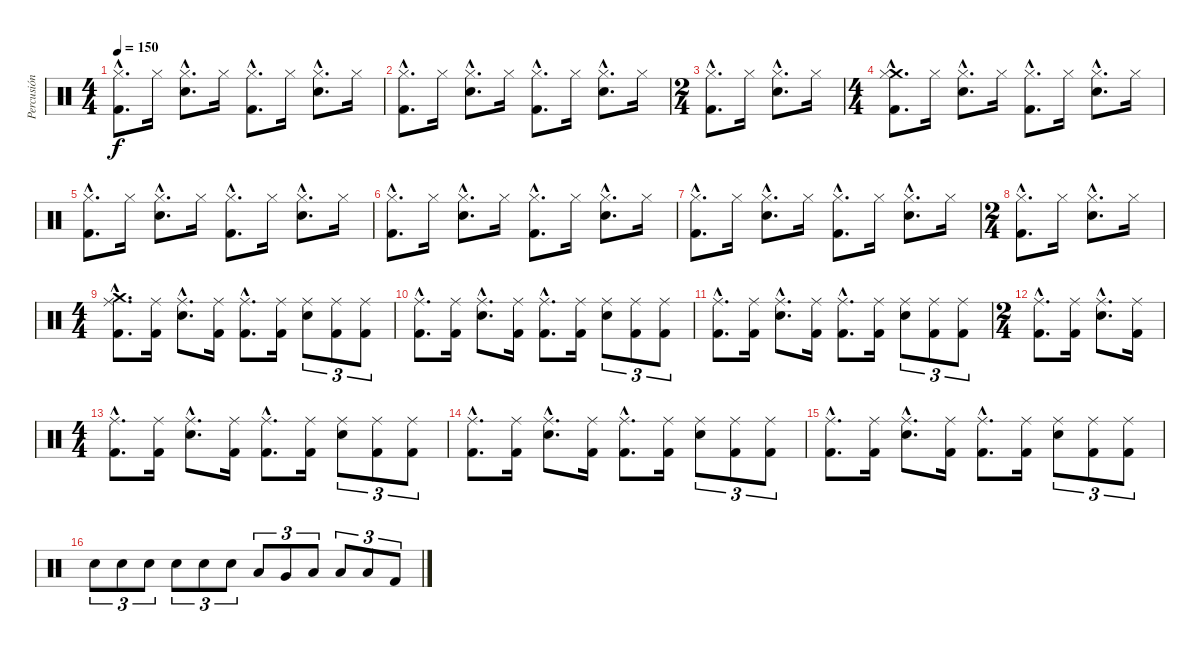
\track ("Percusión" "Percusión") {instrument percussion}
\staff {score}
\articulation defaults
\ts (4 4)
\tempo 150
\clef neutral
\ks c
("Hi-Hat (closed)"{hac} "Kick (hit) 2"{hac}).8{d dy f} "Hi-Hat (closed)".16 ("Hi-Hat (closed)"{hac} "Snare (hit) 2"{hac}).8{d} "Hi-Hat (closed)".16 ("Hi-Hat (closed)"{hac} "Kick (hit) 2"{hac}).8{d} "Hi-Hat (closed)".16 ("Hi-Hat (closed)"{hac} "Snare (hit) 2"{hac}).8{d} "Hi-Hat (closed)".16 |
("Hi-Hat (closed)"{hac} "Kick (hit) 2"{hac}).8{d} "Hi-Hat (closed)".16 ("Hi-Hat (closed)"{hac} "Snare (hit) 2"{hac}).8{d} "Hi-Hat (closed)".16 ("Hi-Hat (closed)"{hac} "Kick (hit) 2"{hac}).8{d} "Hi-Hat (closed)".16 ("Hi-Hat (closed)"{hac} "Snare (hit) 2"{hac}).8{d} "Hi-Hat (closed)".16 |
\ts (2 4)
("Hi-Hat (closed)"{hac} "Kick (hit) 2"{hac}).8{d} "Hi-Hat (closed)".16 ("Hi-Hat (closed)"{hac} "Snare (hit) 2"{hac}).8{d} "Hi-Hat (closed)".16 |
\ts (4 4)
("Crash medium (hit)"{hac} "Hi-Hat (closed)"{hac} "Kick (hit) 2"{hac}).8{d} "Hi-Hat (closed)".16 ("Hi-Hat (closed)"{hac} "Snare (hit) 2"{hac}).8{d} "Hi-Hat (closed)".16 ("Hi-Hat (closed)"{hac} "Kick (hit) 2"{hac}).8{d} "Hi-Hat (closed)".16 ("Hi-Hat (closed)"{hac} "Snare (hit) 2"{hac}).8{d} "Hi-Hat (closed)".16 |
("Hi-Hat (closed)"{hac} "Kick (hit) 2"{hac}).8{d} "Hi-Hat (closed)".16 ("Hi-Hat (closed)"{hac} "Snare (hit) 2"{hac}).8{d} "Hi-Hat (closed)".16 ("Hi-Hat (closed)"{hac} "Kick (hit) 2"{hac}).8{d} "Hi-Hat (closed)".16 ("Hi-Hat (closed)"{hac} "Snare (hit) 2"{hac}).8{d} "Hi-Hat (closed)".16 |
("Hi-Hat (closed)"{hac} "Kick (hit) 2"{hac}).8{d} "Hi-Hat (closed)".16 ("Hi-Hat (closed)"{hac} "Snare (hit) 2"{hac}).8{d} "Hi-Hat (closed)".16 ("Hi-Hat (closed)"{hac} "Kick (hit) 2"{hac}).8{d} "Hi-Hat (closed)".16 ("Hi-Hat (closed)"{hac} "Snare (hit) 2"{hac}).8{d} "Hi-Hat (closed)".16 |
("Hi-Hat (closed)"{hac} "Kick (hit) 2"{hac}).8{d} "Hi-Hat (closed)".16 ("Hi-Hat (closed)"{hac} "Snare (hit) 2"{hac}).8{d} "Hi-Hat (closed)".16 ("Hi-Hat (closed)"{hac} "Kick (hit) 2"{hac}).8{d} "Hi-Hat (closed)".16 ("Hi-Hat (closed)"{hac} "Snare (hit) 2"{hac}).8{d} "Hi-Hat (closed)".16 |
\ts (2 4)
("Hi-Hat (closed)"{hac} "Kick (hit) 2"{hac}).8{d} "Hi-Hat (closed)".16 ("Hi-Hat (closed)"{hac} "Snare (hit) 2"{hac}).8{d} "Hi-Hat (closed)".16 |
\ts (4 4)
("Kick (hit) 2"{hac} "Ride (middle)"{hac} "Crash medium (hit)"{hac}).8{d} ("Kick (hit) 2" "Ride (middle)").16 ("Snare (hit) 2"{hac} "Ride (middle)"{hac}).8{d} ("Kick (hit) 2" "Ride (middle)").16 ("Kick (hit) 2"{hac} "Ride (middle)"{hac}).8{d} ("Ride (middle)" "Kick (hit) 2").16 ("Ride (middle)" "Snare (hit) 2").8{tu (3 2)} ("Ride (middle)" "Kick (hit) 2").8{tu (3 2)} ("Ride (middle)" "Kick (hit) 2").8{tu (3 2)} |
("Kick (hit) 2"{hac} "Ride (middle)"{hac}).8{d} ("Kick (hit) 2" "Ride (middle)").16 ("Snare (hit) 2"{hac} "Ride (middle)"{hac}).8{d} ("Kick (hit) 2" "Ride (middle)").16 ("Kick (hit) 2"{hac} "Ride (middle)"{hac}).8{d} ("Ride (middle)" "Kick (hit) 2").16 ("Ride (middle)" "Snare (hit) 2").8{tu (3 2)} ("Ride (middle)" "Kick (hit) 2").8{tu (3 2)} ("Ride (middle)" "Kick (hit) 2").8{tu (3 2)} |
("Kick (hit) 2"{hac} "Ride (middle)"{hac}).8{d} ("Kick (hit) 2" "Ride (middle)").16 ("Snare (hit) 2"{hac} "Ride (middle)"{hac}).8{d} ("Kick (hit) 2" "Ride (middle)").16 ("Kick (hit) 2"{hac} "Ride (middle)"{hac}).8{d} ("Ride (middle)" "Kick (hit) 2").16 ("Ride (middle)" "Snare (hit) 2").8{tu (3 2)} ("Ride (middle)" "Kick (hit) 2").8{tu (3 2)} ("Ride (middle)" "Kick (hit) 2").8{tu (3 2)} |
\ts (2 4)
("Kick (hit) 2"{hac} "Ride (middle)"{hac}).8{d} ("Kick (hit) 2" "Ride (middle)").16 ("Ride (middle)"{hac} "Snare (hit) 2"{hac}).8{d} ("Ride (middle)" "Kick (hit) 2").16 |
\ts (4 4)
("Kick (hit) 2"{hac} "Ride (middle)"{hac}).8{d} ("Kick (hit) 2" "Ride (middle)").16 ("Snare (hit) 2"{hac} "Ride (middle)"{hac}).8{d} ("Kick (hit) 2" "Ride (middle)").16 ("Kick (hit) 2"{hac} "Ride (middle)"{hac}).8{d} ("Ride (middle)" "Kick (hit) 2").16 ("Ride (middle)" "Snare (hit) 2").8{tu (3 2)} ("Ride (middle)" "Kick (hit) 2").8{tu (3 2)} ("Ride (middle)" "Kick (hit) 2").8{tu (3 2)} |
("Kick (hit) 2"{hac} "Ride (middle)"{hac}).8{d} ("Kick (hit) 2" "Ride (middle)").16 ("Snare (hit) 2"{hac} "Ride (middle)"{hac}).8{d} ("Kick (hit) 2" "Ride (middle)").16 ("Kick (hit) 2"{hac} "Ride (middle)"{hac}).8{d} ("Ride (middle)" "Kick (hit) 2").16 ("Ride (middle)" "Snare (hit) 2").8{tu (3 2)} ("Ride (middle)" "Kick (hit) 2").8{tu (3 2)} ("Ride (middle)" "Kick (hit) 2").8{tu (3 2)} |
("Kick (hit) 2"{hac} "Ride (middle)"{hac}).8{d} ("Kick (hit) 2" "Ride (middle)").16 ("Snare (hit) 2"{hac} "Ride (middle)"{hac}).8{d} ("Kick (hit) 2" "Ride (middle)").16 ("Kick (hit) 2"{hac} "Ride (middle)"{hac}).8{d} ("Ride (middle)" "Kick (hit) 2").16 ("Ride (middle)" "Snare (hit) 2").8{tu (3 2)} ("Ride (middle)" "Kick (hit) 2").8{tu (3 2)} ("Ride (middle)" "Kick (hit) 2").8{tu (3 2)} |
"Snare (hit) 2".8{tu (3 2)} "Snare (hit) 2".8{tu (3 2)} "Snare (hit) 2".8{tu (3 2)} "Snare (hit) 2".8{tu (3 2)} "Snare (hit) 2".8{tu (3 2)} "Snare (hit) 2".8{tu (3 2)} "Low Tom (hit)".8{tu (3 2)} "Very Low Tom (hit)".8{tu (3 2)} "Low Floor Tom (hit)".8{tu (3 2)} "Low Floor Tom (hit)".8{tu (3 2)} "Low Floor Tom (hit)".8{tu (3 2)} "Kick (hit) 2".8{tu (3 2)}
